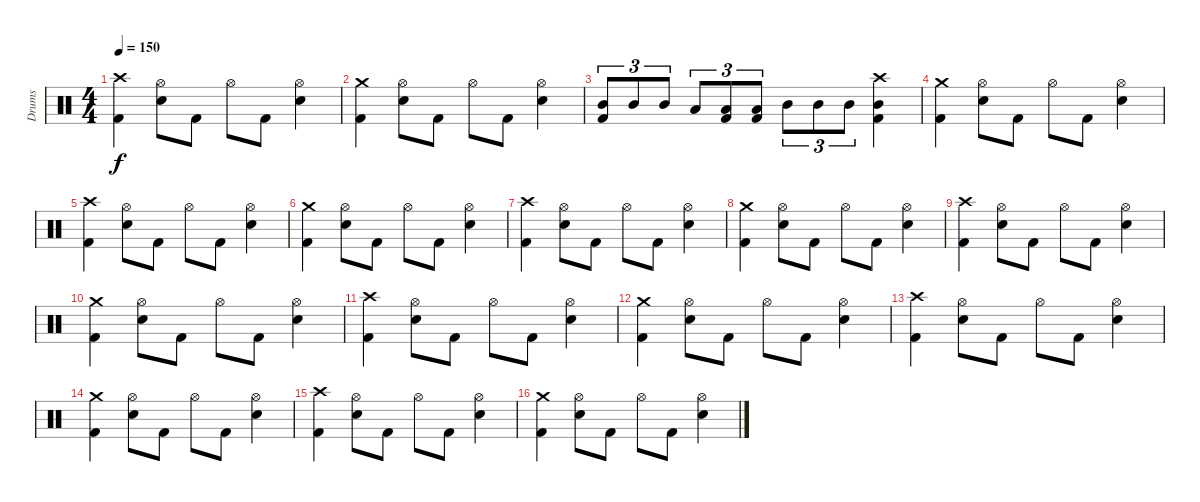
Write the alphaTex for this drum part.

\track ("Drums" "Drums") {instrument percussion}
\staff {score}
\articulation defaults
\ts (4 4)
\tempo 150
\clef neutral
\ks c
("Crash high (hit)" "Kick (hit) 2").4{dy f} ("Hi-Hat (open)" "Electric Snare (hit)").8 "Kick (hit) 2".8 "Hi-Hat (open)".8 "Kick (hit) 2".8 ("Hi-Hat (open)" "Electric Snare (hit)").4 |
("Crash medium (hit)" "Kick (hit) 2").4 ("Hi-Hat (open)" "Electric Snare (hit)").8 "Kick (hit) 2".8 "Hi-Hat (open)".8 "Kick (hit) 2".8 ("Hi-Hat (open)" "Electric Snare (hit)").4 |
("Mid Tom (hit)" "Kick (hit) 2").8{tu (3 2)} "Mid Tom (hit)".8{tu (3 2)} "Mid Tom (hit)".8{tu (3 2)} "Low Tom (hit)".8{tu (3 2)} ("Low Tom (hit)" "Kick (hit) 2").8{tu (3 2)} ("Low Tom (hit)" "Kick (hit) 2").8{tu (3 2)} "Mid Tom (hit)".8{tu (3 2)} "Mid Tom (hit)".8{tu (3 2)} "Mid Tom (hit)".8{tu (3 2)} ("Crash high (hit)" "Mid Tom (hit)" "Kick (hit) 2").4 |
("Crash medium (hit)" "Kick (hit) 2").4 ("Hi-Hat (open)" "Electric Snare (hit)").8 "Kick (hit) 2".8 "Hi-Hat (open)".8 "Kick (hit) 2".8 ("Hi-Hat (open)" "Electric Snare (hit)").4 |
("Crash high (hit)" "Kick (hit) 2").4 ("Hi-Hat (open)" "Electric Snare (hit)").8 "Kick (hit) 2".8 "Hi-Hat (open)".8 "Kick (hit) 2".8 ("Hi-Hat (open)" "Electric Snare (hit)").4 |
("Crash medium (hit)" "Kick (hit) 2").4 ("Hi-Hat (open)" "Electric Snare (hit)").8 "Kick (hit) 2".8 "Hi-Hat (open)".8 "Kick (hit) 2".8 ("Hi-Hat (open)" "Electric Snare (hit)").4 |
("Crash high (hit)" "Kick (hit) 2").4 ("Hi-Hat (open)" "Electric Snare (hit)").8 "Kick (hit) 2".8 "Hi-Hat (open)".8 "Kick (hit) 2".8 ("Hi-Hat (open)" "Electric Snare (hit)").4 |
("Crash medium (hit)" "Kick (hit) 2").4 ("Hi-Hat (open)" "Electric Snare (hit)").8 "Kick (hit) 2".8 "Hi-Hat (open)".8 "Kick (hit) 2".8 ("Hi-Hat (open)" "Electric Snare (hit)").4 |
("Crash high (hit)" "Kick (hit) 2").4 ("Hi-Hat (open)" "Electric Snare (hit)").8 "Kick (hit) 2".8 "Hi-Hat (open)".8 "Kick (hit) 2".8 ("Hi-Hat (open)" "Electric Snare (hit)").4 |
("Crash medium (hit)" "Kick (hit) 2").4 ("Hi-Hat (open)" "Electric Snare (hit)").8 "Kick (hit) 2".8 "Hi-Hat (open)".8 "Kick (hit) 2".8 ("Hi-Hat (open)" "Electric Snare (hit)").4 |
("Crash high (hit)" "Kick (hit) 2").4 ("Hi-Hat (open)" "Electric Snare (hit)").8 "Kick (hit) 2".8 "Hi-Hat (open)".8 "Kick (hit) 2".8 ("Hi-Hat (open)" "Electric Snare (hit)").4 |
("Crash medium (hit)" "Kick (hit) 2").4 ("Hi-Hat (open)" "Electric Snare (hit)").8 "Kick (hit) 2".8 "Hi-Hat (open)".8 "Kick (hit) 2".8 ("Hi-Hat (open)" "Electric Snare (hit)").4 |
("Crash high (hit)" "Kick (hit) 2").4 ("Hi-Hat (open)" "Electric Snare (hit)").8 "Kick (hit) 2".8 "Hi-Hat (open)".8 "Kick (hit) 2".8 ("Hi-Hat (open)" "Electric Snare (hit)").4 |
("Crash medium (hit)" "Kick (hit) 2").4 ("Hi-Hat (open)" "Electric Snare (hit)").8 "Kick (hit) 2".8 "Hi-Hat (open)".8 "Kick (hit) 2".8 ("Hi-Hat (open)" "Electric Snare (hit)").4 |
("Crash high (hit)" "Kick (hit) 2").4 ("Hi-Hat (open)" "Electric Snare (hit)").8 "Kick (hit) 2".8 "Hi-Hat (open)".8 "Kick (hit) 2".8 ("Hi-Hat (open)" "Electric Snare (hit)").4 |
("Crash medium (hit)" "Kick (hit) 2").4 ("Hi-Hat (open)" "Electric Snare (hit)").8 "Kick (hit) 2".8 "Hi-Hat (open)".8 "Kick (hit) 2".8 ("Hi-Hat (open)" "Electric Snare (hit)").4
